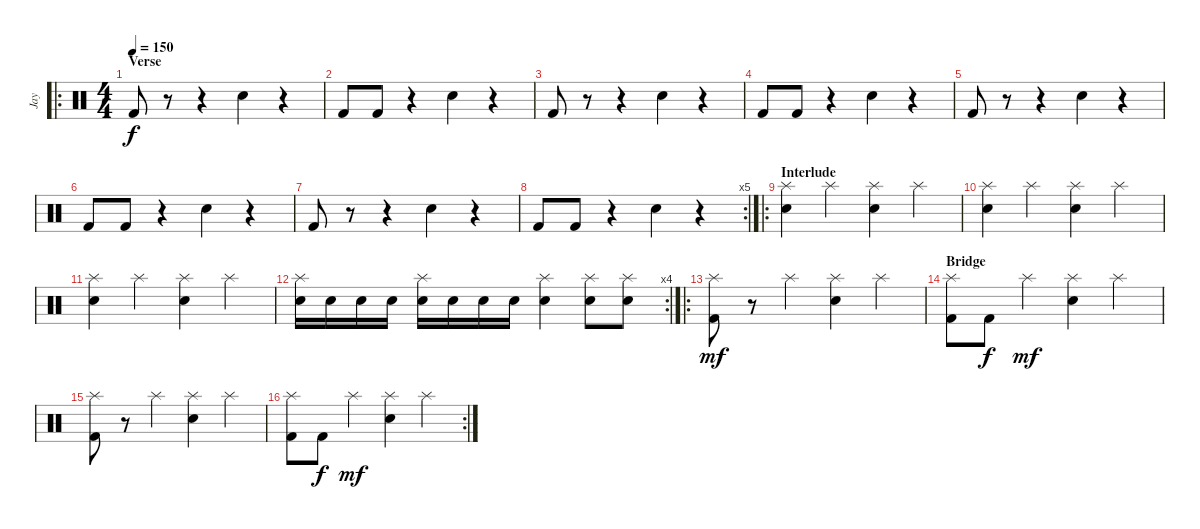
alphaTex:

\track ("Jay" "Jay") {instrument percussion}
\staff {score}
\articulation defaults
\ro
\ts (4 4)
\section ("" "Verse")
\tempo 150
\clef neutral
\ks c "Kick (hit) 2".8{dy f}
r.8 r.4 "Electric Snare (hit)".4 r.4 |
"Kick (hit) 2".8 "Kick (hit) 2".8 r.4 "Electric Snare (hit)".4 r.4 |
"Kick (hit) 2".8 r.8 r.4 "Electric Snare (hit)".4 r.4 |
"Kick (hit) 2".8 "Kick (hit) 2".8 r.4 "Electric Snare (hit)".4 r.4 |
"Kick (hit) 2".8 r.8 r.4 "Electric Snare (hit)".4 r.4 |
"Kick (hit) 2".8 "Kick (hit) 2".8 r.4 "Electric Snare (hit)".4 r.4 |
"Kick (hit) 2".8 r.8 r.4 "Electric Snare (hit)".4 r.4 |
\rc 5 "Kick (hit) 2".8 "Kick (hit) 2".8
r.4 "Electric Snare (hit)".4 r.4 |
\ro
\section ("" "Interlude")
("Splash (hit)" "Electric Snare (hit)").4 "Splash (hit)".4 ("Splash (hit)" "Electric Snare (hit)").4 "Splash (hit)".4 |
("Splash (hit)" "Electric Snare (hit)").4 "Splash (hit)".4 ("Splash (hit)" "Electric Snare (hit)").4 "Splash (hit)".4 |
("Splash (hit)" "Electric Snare (hit)").4 "Splash (hit)".4 ("Splash (hit)" "Electric Snare (hit)").4 "Splash (hit)".4 |
\rc 4
("Splash (hit)" "Electric Snare (hit)").16 "Electric Snare (hit)".16 "Electric Snare (hit)".16 "Electric Snare (hit)".16 ("Splash (hit)" "Electric Snare (hit)").16 "Electric Snare (hit)".16 "Electric Snare (hit)".16 "Electric Snare (hit)".16 ("Splash (hit)" "Electric Snare (hit)").4 ("Splash (hit)" "Electric Snare (hit)").8 ("Splash (hit)" "Electric Snare (hit)").8 |
\ro
("Splash (hit)" "Kick (hit) 2").8{dy mf} r.8 "Splash (hit)".4 ("Splash (hit)" "Electric Snare (hit)").4 "Splash (hit)".4 |
\section ("" "Bridge")
("Splash (hit)" "Kick (hit) 2").8 "Kick (hit) 2".8{dy f} "Splash (hit)".4{dy mf} ("Splash (hit)" "Electric Snare (hit)").4 "Splash (hit)".4 |
("Splash (hit)" "Kick (hit) 2").8 r.8 "Splash (hit)".4 ("Splash (hit)" "Electric Snare (hit)").4 "Splash (hit)".4 |
\rc 2
("Splash (hit)" "Kick (hit) 2").8 "Kick (hit) 2".8{dy f} "Splash (hit)".4{dy mf} ("Splash (hit)" "Electric Snare (hit)").4 "Splash (hit)".4
